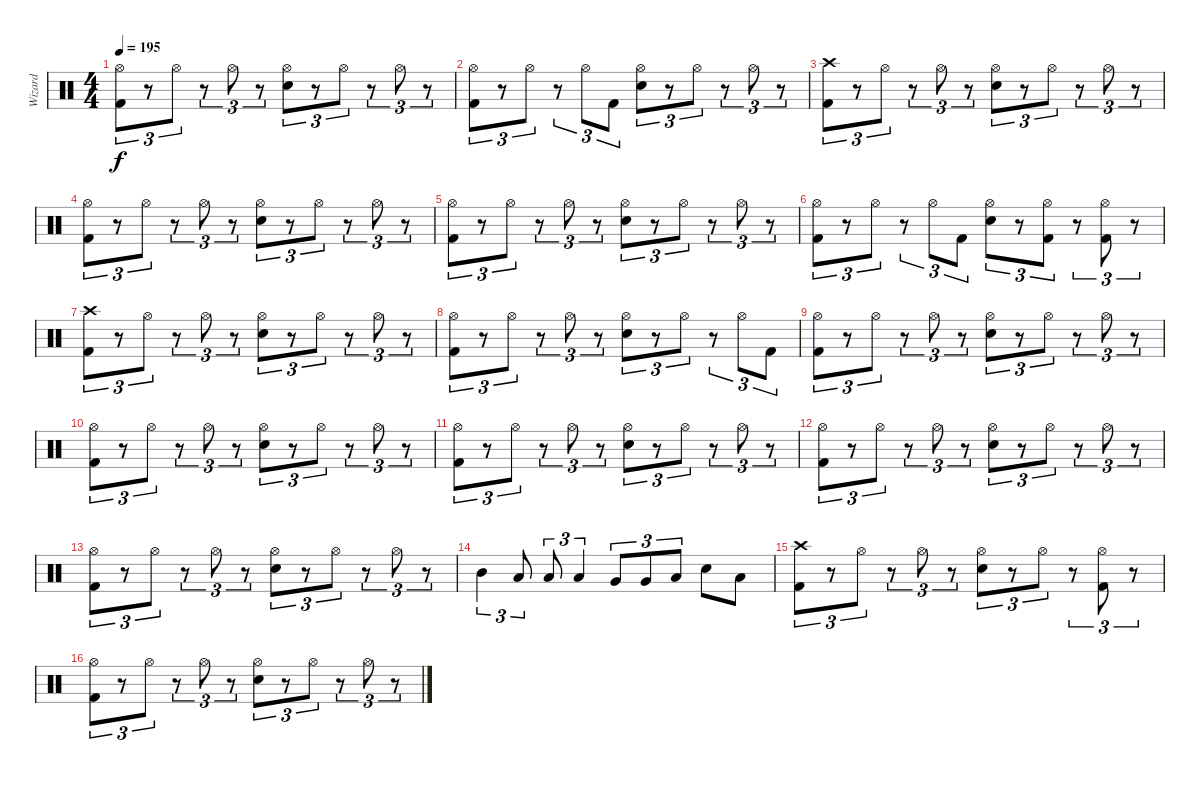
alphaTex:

\track ("Wizard" "Wizard") {instrument percussion}
\staff {score}
\articulation defaults
\ts (4 4)
\tempo 195
\clef neutral
\ks c
("Hi-Hat (open)" "Kick (hit) 2").8{tu (3 2) dy f} r.8{tu (3 2)} "Hi-Hat (open)".8{tu (3 2)} r.8{tu (3 2)} "Hi-Hat (open)".8{tu (3 2)} r.8{tu (3 2)} ("Hi-Hat (open)" "Snare (hit) 2").8{tu (3 2)} r.8{tu (3 2)} "Hi-Hat (open)".8{tu (3 2)} r.8{tu (3 2)} "Hi-Hat (open)".8{tu (3 2)} r.8{tu (3 2)} |
("Hi-Hat (open)" "Kick (hit) 2").8{tu (3 2)} r.8{tu (3 2)} "Hi-Hat (open)".8{tu (3 2)} r.8{tu (3 2)} "Hi-Hat (open)".8{tu (3 2)} "Kick (hit) 2".8{tu (3 2)} ("Hi-Hat (open)" "Snare (hit) 2").8{tu (3 2)} r.8{tu (3 2)} "Hi-Hat (open)".8{tu (3 2)} r.8{tu (3 2)} "Hi-Hat (open)".8{tu (3 2)} r.8{tu (3 2)} |
("Crash high (hit)" "Kick (hit) 2").8{tu (3 2)} r.8{tu (3 2)} "Hi-Hat (open)".8{tu (3 2)} r.8{tu (3 2)} "Hi-Hat (open)".8{tu (3 2)} r.8{tu (3 2)} ("Hi-Hat (open)" "Snare (hit) 2").8{tu (3 2)} r.8{tu (3 2)} "Hi-Hat (open)".8{tu (3 2)} r.8{tu (3 2)} "Hi-Hat (open)".8{tu (3 2)} r.8{tu (3 2)} |
("Hi-Hat (open)" "Kick (hit) 2").8{tu (3 2)} r.8{tu (3 2)} "Hi-Hat (open)".8{tu (3 2)} r.8{tu (3 2)} "Hi-Hat (open)".8{tu (3 2)} r.8{tu (3 2)} ("Hi-Hat (open)" "Snare (hit) 2").8{tu (3 2)} r.8{tu (3 2)} "Hi-Hat (open)".8{tu (3 2)} r.8{tu (3 2)} "Hi-Hat (open)".8{tu (3 2)} r.8{tu (3 2)} |
("Hi-Hat (open)" "Kick (hit) 2").8{tu (3 2)} r.8{tu (3 2)} "Hi-Hat (open)".8{tu (3 2)} r.8{tu (3 2)} "Hi-Hat (open)".8{tu (3 2)} r.8{tu (3 2)} ("Hi-Hat (open)" "Snare (hit) 2").8{tu (3 2)} r.8{tu (3 2)} "Hi-Hat (open)".8{tu (3 2)} r.8{tu (3 2)} "Hi-Hat (open)".8{tu (3 2)} r.8{tu (3 2)} |
("Hi-Hat (open)" "Kick (hit) 2").8{tu (3 2)} r.8{tu (3 2)} "Hi-Hat (open)".8{tu (3 2)} r.8{tu (3 2)} "Hi-Hat (open)".8{tu (3 2)} "Kick (hit) 2".8{tu (3 2)} ("Hi-Hat (open)" "Snare (hit) 2").8{tu (3 2)} r.8{tu (3 2)} ("Hi-Hat (open)" "Kick (hit) 2").8{tu (3 2)} r.8{tu (3 2)} ("Hi-Hat (open)" "Kick (hit) 2").8{tu (3 2)} r.8{tu (3 2)} |
("Crash high (hit)" "Kick (hit) 2").8{tu (3 2)} r.8{tu (3 2)} "Hi-Hat (open)".8{tu (3 2)} r.8{tu (3 2)} "Hi-Hat (open)".8{tu (3 2)} r.8{tu (3 2)} ("Hi-Hat (open)" "Snare (hit) 2").8{tu (3 2)} r.8{tu (3 2)} "Hi-Hat (open)".8{tu (3 2)} r.8{tu (3 2)} "Hi-Hat (open)".8{tu (3 2)} r.8{tu (3 2)} |
("Hi-Hat (open)" "Kick (hit) 2").8{tu (3 2)} r.8{tu (3 2)} "Hi-Hat (open)".8{tu (3 2)} r.8{tu (3 2)} "Hi-Hat (open)".8{tu (3 2)} r.8{tu (3 2)} ("Hi-Hat (open)" "Snare (hit) 2").8{tu (3 2)} r.8{tu (3 2)} "Hi-Hat (open)".8{tu (3 2)} r.8{tu (3 2)} "Hi-Hat (open)".8{tu (3 2)} "Kick (hit) 2".8{tu (3 2)} |
("Hi-Hat (open)" "Kick (hit) 2").8{tu (3 2)} r.8{tu (3 2)} "Hi-Hat (open)".8{tu (3 2)} r.8{tu (3 2)} "Hi-Hat (open)".8{tu (3 2)} r.8{tu (3 2)} ("Hi-Hat (open)" "Snare (hit) 2").8{tu (3 2)} r.8{tu (3 2)} "Hi-Hat (open)".8{tu (3 2)} r.8{tu (3 2)} "Hi-Hat (open)".8{tu (3 2)} r.8{tu (3 2)} |
("Hi-Hat (open)" "Kick (hit) 2").8{tu (3 2)} r.8{tu (3 2)} "Hi-Hat (open)".8{tu (3 2)} r.8{tu (3 2)} "Hi-Hat (open)".8{tu (3 2)} r.8{tu (3 2)} ("Hi-Hat (open)" "Snare (hit) 2").8{tu (3 2)} r.8{tu (3 2)} "Hi-Hat (open)".8{tu (3 2)} r.8{tu (3 2)} "Hi-Hat (open)".8{tu (3 2)} r.8{tu (3 2)} |
("Hi-Hat (open)" "Kick (hit) 2").8{tu (3 2)} r.8{tu (3 2)} "Hi-Hat (open)".8{tu (3 2)} r.8{tu (3 2)} "Hi-Hat (open)".8{tu (3 2)} r.8{tu (3 2)} ("Hi-Hat (open)" "Snare (hit) 2").8{tu (3 2)} r.8{tu (3 2)} "Hi-Hat (open)".8{tu (3 2)} r.8{tu (3 2)} "Hi-Hat (open)".8{tu (3 2)} r.8{tu (3 2)} |
("Hi-Hat (open)" "Kick (hit) 2").8{tu (3 2)} r.8{tu (3 2)} "Hi-Hat (open)".8{tu (3 2)} r.8{tu (3 2)} "Hi-Hat (open)".8{tu (3 2)} r.8{tu (3 2)} ("Hi-Hat (open)" "Snare (hit) 2").8{tu (3 2)} r.8{tu (3 2)} "Hi-Hat (open)".8{tu (3 2)} r.8{tu (3 2)} "Hi-Hat (open)".8{tu (3 2)} r.8{tu (3 2)} |
("Hi-Hat (open)" "Kick (hit) 2").8{tu (3 2)} r.8{tu (3 2)} "Hi-Hat (open)".8{tu (3 2)} r.8{tu (3 2)} "Hi-Hat (open)".8{tu (3 2)} r.8{tu (3 2)} ("Hi-Hat (open)" "Snare (hit) 2").8{tu (3 2)} r.8{tu (3 2)} "Hi-Hat (open)".8{tu (3 2)} r.8{tu (3 2)} "Hi-Hat (open)".8{tu (3 2)} r.8{tu (3 2)} |
"Mid Tom (hit)".4{tu (3 2)} "Low Tom (hit)".8{tu (3 2)} "Low Tom (hit)".8{tu (3 2)} "Low Tom (hit)".4{tu (3 2)} "Very Low Tom (hit)".8{tu (3 2)} "Very Low Tom (hit)".8{tu (3 2)} "Low Tom (hit)".8{tu (3 2)} "Snare (hit) 2".8 "Low Tom (hit)".8 |
("Crash high (hit)" "Kick (hit) 2").8{tu (3 2)} r.8{tu (3 2)} "Hi-Hat (open)".8{tu (3 2)} r.8{tu (3 2)} "Hi-Hat (open)".8{tu (3 2)} r.8{tu (3 2)} ("Hi-Hat (open)" "Snare (hit) 2").8{tu (3 2)} r.8{tu (3 2)} "Hi-Hat (open)".8{tu (3 2)} r.8{tu (3 2)} ("Hi-Hat (open)" "Kick (hit) 2").8{tu (3 2)} r.8{tu (3 2)} |
("Hi-Hat (open)" "Kick (hit) 2").8{tu (3 2)} r.8{tu (3 2)} "Hi-Hat (open)".8{tu (3 2)} r.8{tu (3 2)} "Hi-Hat (open)".8{tu (3 2)} r.8{tu (3 2)} ("Hi-Hat (open)" "Snare (hit) 2").8{tu (3 2)} r.8{tu (3 2)} "Hi-Hat (open)".8{tu (3 2)} r.8{tu (3 2)} "Hi-Hat (open)".8{tu (3 2)} r.8{tu (3 2)}
